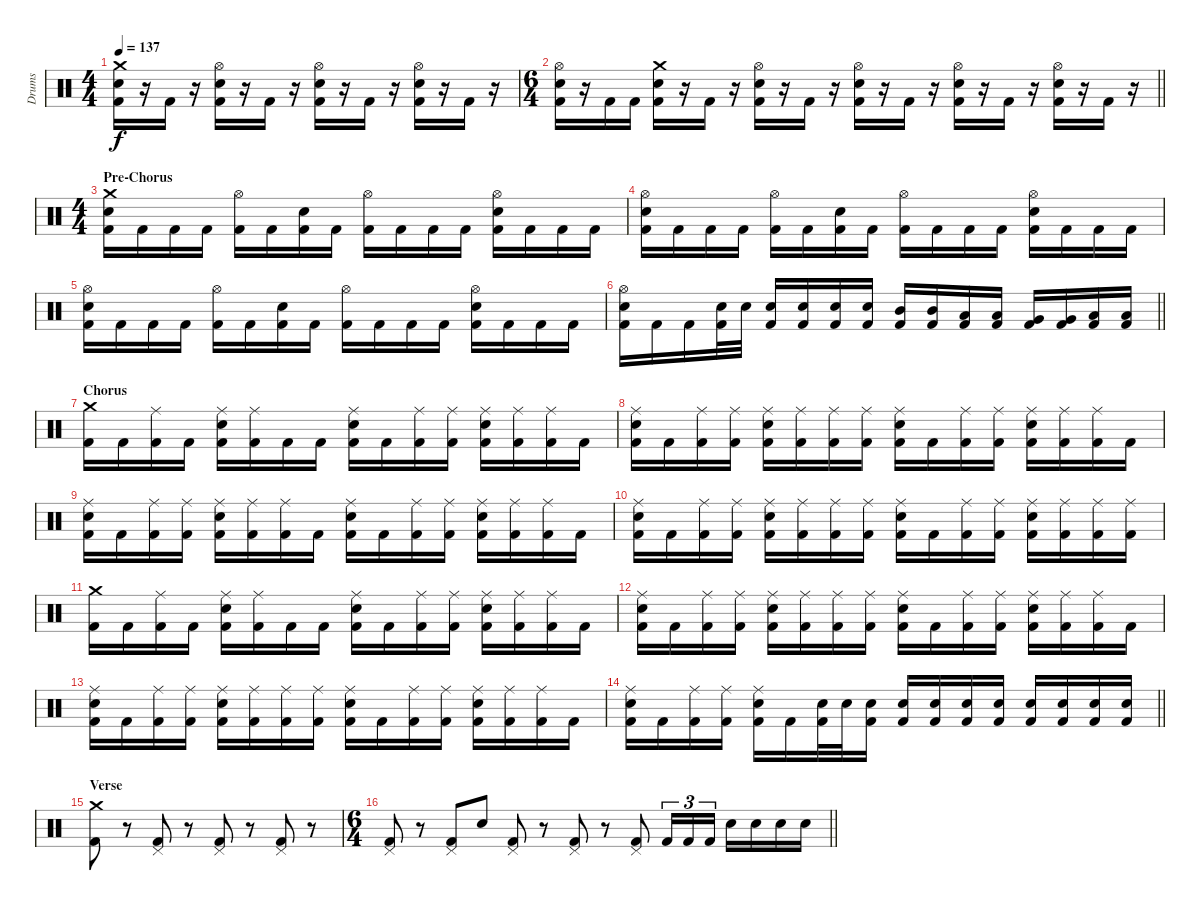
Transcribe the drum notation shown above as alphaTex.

\track ("Drums" "Drums") {instrument percussion}
\staff {score}
\articulation defaults
\ts (4 4)
\tempo 137
\clef neutral
\ks c
("Crash medium (hit)" "Electric Snare (hit)" "Kick (hit) 2").16{dy f} r.16 "Kick (hit) 2".16 r.16 ("Hi-Hat (open)" "Electric Snare (hit)" "Kick (hit) 2").16 r.16 "Kick (hit) 2".16 r.16 ("Hi-Hat (open)" "Electric Snare (hit)" "Kick (hit) 2").16 r.16 "Kick (hit) 2".16 r.16 ("Hi-Hat (open)" "Electric Snare (hit)" "Kick (hit) 2").16 r.16 "Kick (hit) 2".16 r.16 |
\ts (6 4)
\barLineRight lightlight
("Hi-Hat (open)" "Electric Snare (hit)" "Kick (hit) 2").16 r.16 "Kick (hit) 2".16 "Kick (hit) 2".16 ("Crash medium (hit)" "Electric Snare (hit)" "Kick (hit) 2").16 r.16 "Kick (hit) 2".16 r.16 ("Hi-Hat (open)" "Electric Snare (hit)" "Kick (hit) 2").16 r.16 "Kick (hit) 2".16 r.16 ("Hi-Hat (open)" "Electric Snare (hit)" "Kick (hit) 2").16 r.16 "Kick (hit) 2".16 r.16 ("Hi-Hat (open)" "Electric Snare (hit)" "Kick (hit) 2").16 r.16 "Kick (hit) 2".16 r.16 ("Hi-Hat (open)" "Electric Snare (hit)" "Kick (hit) 2").16 r.16 "Kick (hit) 2".16 r.16 |
\ts (4 4)
\section ("" "Pre-Chorus")
("Crash medium (hit)" "Electric Snare (hit)" "Kick (hit) 2").16 "Kick (hit) 2".16 "Kick (hit) 2".16 "Kick (hit) 2".16 ("Hi-Hat (open)" "Kick (hit) 2").16 "Kick (hit) 2".16 ("Electric Snare (hit)" "Kick (hit) 2").16 "Kick (hit) 2".16 ("Hi-Hat (open)" "Kick (hit) 2").16 "Kick (hit) 2".16 "Kick (hit) 2".16 "Kick (hit) 2".16 ("Hi-Hat (open)" "Electric Snare (hit)" "Kick (hit) 2").16 "Kick (hit) 2".16 "Kick (hit) 2".16 "Kick (hit) 2".16 |
("Hi-Hat (open)" "Electric Snare (hit)" "Kick (hit) 2").16 "Kick (hit) 2".16 "Kick (hit) 2".16 "Kick (hit) 2".16 ("Hi-Hat (open)" "Kick (hit) 2").16 "Kick (hit) 2".16 ("Electric Snare (hit)" "Kick (hit) 2").16 "Kick (hit) 2".16 ("Hi-Hat (open)" "Kick (hit) 2").16 "Kick (hit) 2".16 "Kick (hit) 2".16 "Kick (hit) 2".16 ("Hi-Hat (open)" "Electric Snare (hit)" "Kick (hit) 2").16 "Kick (hit) 2".16 "Kick (hit) 2".16 "Kick (hit) 2".16 |
("Hi-Hat (open)" "Electric Snare (hit)" "Kick (hit) 2").16 "Kick (hit) 2".16 "Kick (hit) 2".16 "Kick (hit) 2".16 ("Hi-Hat (open)" "Kick (hit) 2").16 "Kick (hit) 2".16 ("Electric Snare (hit)" "Kick (hit) 2").16 "Kick (hit) 2".16 ("Hi-Hat (open)" "Kick (hit) 2").16 "Kick (hit) 2".16 "Kick (hit) 2".16 "Kick (hit) 2".16 ("Hi-Hat (open)" "Electric Snare (hit)" "Kick (hit) 2").16 "Kick (hit) 2".16 "Kick (hit) 2".16 "Kick (hit) 2".16 |
\barLineRight lightlight
("Hi-Hat (open)" "Electric Snare (hit)" "Kick (hit) 2").16 "Kick (hit) 2".16 "Kick (hit) 2".16 ("Electric Snare (hit)" "Kick (hit) 2").32 "Electric Snare (hit)".32 ("Electric Snare (hit)" "Kick (hit) 2").16 ("Electric Snare (hit)" "Kick (hit) 2").16 ("Electric Snare (hit)" "Kick (hit) 2").16 ("Electric Snare (hit)" "Kick (hit) 2").16 ("Mid Tom (hit)" "Kick (hit) 2").16 ("Mid Tom (hit)" "Kick (hit) 2").16 ("Low Tom (hit)" "Kick (hit) 2").16 ("Low Tom (hit)" "Kick (hit) 2").16 ("Very Low Tom (hit)" "Kick (hit) 2").16 ("Very Low Tom (hit)" "Kick (hit) 2").16 ("Low Floor Tom (hit)" "Kick (hit) 2").16 ("Low Floor Tom (hit)" "Kick (hit) 2").16 |
\section ("" "Chorus")
("Crash medium (hit)" "Kick (hit) 2").16 "Kick (hit) 2".16 ("Ride (middle)" "Kick (hit) 2").16 "Kick (hit) 2".16 ("Ride (middle)" "Electric Snare (hit)" "Kick (hit) 2").16 ("Ride (middle)" "Kick (hit) 2").16 "Kick (hit) 2".16 "Kick (hit) 2".16 ("Ride (middle)" "Electric Snare (hit)" "Kick (hit) 2").16 "Kick (hit) 2".16 ("Ride (middle)" "Kick (hit) 2").16 ("Ride (middle)" "Kick (hit) 2").16 ("Ride (middle)" "Electric Snare (hit)" "Kick (hit) 2").16 ("Ride (middle)" "Kick (hit) 2").16 ("Ride (middle)" "Kick (hit) 2").16 "Kick (hit) 2".16 |
("Ride (middle)" "Electric Snare (hit)" "Kick (hit) 2").16 "Kick (hit) 2".16 ("Ride (middle)" "Kick (hit) 2").16 ("Ride (middle)" "Kick (hit) 2").16 ("Ride (middle)" "Electric Snare (hit)" "Kick (hit) 2").16 ("Ride (middle)" "Kick (hit) 2").16 ("Ride (middle)" "Kick (hit) 2").16 ("Ride (middle)" "Kick (hit) 2").16 ("Ride (middle)" "Electric Snare (hit)" "Kick (hit) 2").16 "Kick (hit) 2".16 ("Ride (middle)" "Kick (hit) 2").16 ("Ride (middle)" "Kick (hit) 2").16 ("Ride (middle)" "Electric Snare (hit)" "Kick (hit) 2").16 ("Ride (middle)" "Kick (hit) 2").16 ("Ride (middle)" "Kick (hit) 2").16 "Kick (hit) 2".16 |
("Ride (middle)" "Electric Snare (hit)" "Kick (hit) 2").16 "Kick (hit) 2".16 ("Ride (middle)" "Kick (hit) 2").16 ("Ride (middle)" "Kick (hit) 2").16 ("Ride (middle)" "Electric Snare (hit)" "Kick (hit) 2").16 ("Ride (middle)" "Kick (hit) 2").16 ("Ride (middle)" "Kick (hit) 2").16 "Kick (hit) 2".16 ("Ride (middle)" "Electric Snare (hit)" "Kick (hit) 2").16 "Kick (hit) 2".16 ("Ride (middle)" "Kick (hit) 2").16 ("Ride (middle)" "Kick (hit) 2").16 ("Ride (middle)" "Electric Snare (hit)" "Kick (hit) 2").16 ("Ride (middle)" "Kick (hit) 2").16 ("Ride (middle)" "Kick (hit) 2").16 "Kick (hit) 2".16 |
("Ride (middle)" "Electric Snare (hit)" "Kick (hit) 2").16 "Kick (hit) 2".16 ("Ride (middle)" "Kick (hit) 2").16 ("Ride (middle)" "Kick (hit) 2").16 ("Ride (middle)" "Electric Snare (hit)" "Kick (hit) 2").16 ("Ride (middle)" "Kick (hit) 2").16 ("Ride (middle)" "Kick (hit) 2").16 ("Ride (middle)" "Kick (hit) 2").16 ("Ride (middle)" "Electric Snare (hit)" "Kick (hit) 2").16 "Kick (hit) 2".16 ("Ride (middle)" "Kick (hit) 2").16 ("Ride (middle)" "Kick (hit) 2").16 ("Ride (middle)" "Electric Snare (hit)" "Kick (hit) 2").16 ("Ride (middle)" "Kick (hit) 2").16 ("Ride (middle)" "Kick (hit) 2").16 ("Ride (middle)" "Kick (hit) 2").16 |
("Crash medium (hit)" "Kick (hit) 2").16 "Kick (hit) 2".16 ("Ride (middle)" "Kick (hit) 2").16 "Kick (hit) 2".16 ("Ride (middle)" "Electric Snare (hit)" "Kick (hit) 2").16 ("Ride (middle)" "Kick (hit) 2").16 "Kick (hit) 2".16 "Kick (hit) 2".16 ("Ride (middle)" "Electric Snare (hit)" "Kick (hit) 2").16 "Kick (hit) 2".16 ("Ride (middle)" "Kick (hit) 2").16 ("Ride (middle)" "Kick (hit) 2").16 ("Ride (middle)" "Electric Snare (hit)" "Kick (hit) 2").16 ("Ride (middle)" "Kick (hit) 2").16 ("Ride (middle)" "Kick (hit) 2").16 "Kick (hit) 2".16 |
("Ride (middle)" "Electric Snare (hit)" "Kick (hit) 2").16 "Kick (hit) 2".16 ("Ride (middle)" "Kick (hit) 2").16 ("Ride (middle)" "Kick (hit) 2").16 ("Ride (middle)" "Electric Snare (hit)" "Kick (hit) 2").16 ("Ride (middle)" "Kick (hit) 2").16 ("Ride (middle)" "Kick (hit) 2").16 ("Ride (middle)" "Kick (hit) 2").16 ("Ride (middle)" "Electric Snare (hit)" "Kick (hit) 2").16 "Kick (hit) 2".16 ("Ride (middle)" "Kick (hit) 2").16 ("Ride (middle)" "Kick (hit) 2").16 ("Ride (middle)" "Electric Snare (hit)" "Kick (hit) 2").16 ("Ride (middle)" "Kick (hit) 2").16 ("Ride (middle)" "Kick (hit) 2").16 "Kick (hit) 2".16 |
("Ride (middle)" "Electric Snare (hit)" "Kick (hit) 2").16 "Kick (hit) 2".16 ("Ride (middle)" "Kick (hit) 2").16 ("Ride (middle)" "Kick (hit) 2").16 ("Ride (middle)" "Electric Snare (hit)" "Kick (hit) 2").16 ("Ride (middle)" "Kick (hit) 2").16 ("Ride (middle)" "Kick (hit) 2").16 ("Ride (middle)" "Kick (hit) 2").16 ("Ride (middle)" "Electric Snare (hit)" "Kick (hit) 2").16 "Kick (hit) 2".16 ("Ride (middle)" "Kick (hit) 2").16 ("Ride (middle)" "Kick (hit) 2").16 ("Ride (middle)" "Electric Snare (hit)" "Kick (hit) 2").16 ("Ride (middle)" "Kick (hit) 2").16 ("Ride (middle)" "Kick (hit) 2").16 "Kick (hit) 2".16 |
\barLineRight lightlight
("Ride (middle)" "Electric Snare (hit)" "Kick (hit) 2").16 "Kick (hit) 2".16 ("Ride (middle)" "Kick (hit) 2").16 ("Ride (middle)" "Kick (hit) 2").16 ("Ride (middle)" "Electric Snare (hit)" "Kick (hit) 2").16 "Kick (hit) 2".16 ("Electric Snare (hit)" "Kick (hit) 2").32 "Electric Snare (hit)".32 ("Electric Snare (hit)" "Kick (hit) 2").16 ("Electric Snare (hit)" "Kick (hit) 2").16 ("Electric Snare (hit)" "Kick (hit) 2").16 ("Electric Snare (hit)" "Kick (hit) 2").16 ("Electric Snare (hit)" "Kick (hit) 2").16 ("Electric Snare (hit)" "Kick (hit) 2").16 ("Electric Snare (hit)" "Kick (hit) 2").16 ("Electric Snare (hit)" "Kick (hit) 2").16 ("Electric Snare (hit)" "Kick (hit) 2").16 |
\section ("" "Verse")
("Crash medium (hit)" "Kick (hit) 2").8 r.8 ("Pedal Hi-Hat (hit)" "Kick (hit) 2").8 r.8 ("Pedal Hi-Hat (hit)" "Kick (hit) 2").8 r.8 ("Pedal Hi-Hat (hit)" "Kick (hit) 2").8 r.8 |
\ts (6 4)
\barLineRight lightlight
("Pedal Hi-Hat (hit)" "Kick (hit) 2").8 r.8 ("Pedal Hi-Hat (hit)" "Kick (hit) 2").8 "Electric Snare (hit)".8 ("Pedal Hi-Hat (hit)" "Kick (hit) 2").8 r.8 ("Pedal Hi-Hat (hit)" "Kick (hit) 2").8 r.8 ("Pedal Hi-Hat (hit)" "Kick (hit) 2").8 "Kick (hit) 2".16{tu (3 2)} "Kick (hit) 2".16{tu (3 2)} "Kick (hit) 2".16{tu (3 2)} "Electric Snare (hit)".16 "Electric Snare (hit)".16 "Electric Snare (hit)".16 "Electric Snare (hit)".16
